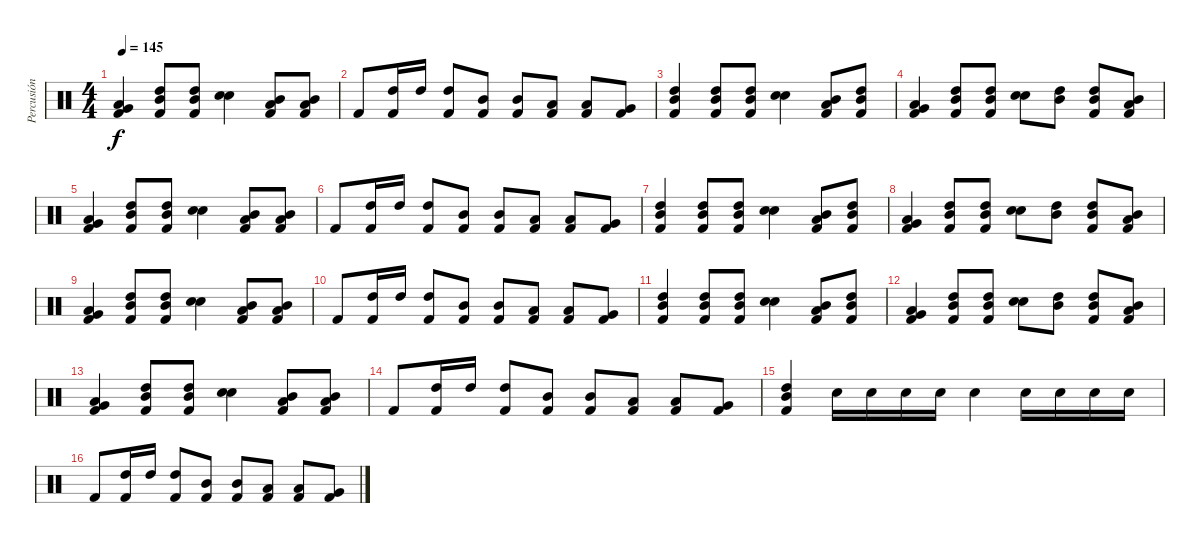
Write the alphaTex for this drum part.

\track ("Percusión" "Percusión") {instrument percussion}
\staff {score}
\articulation defaults
\ts (4 4)
\tempo 145
\clef neutral
\ks c
("Low Tom (hit)" "Very Low Tom (hit)" "Kick (hit) 2").4{dy f} ("High Tom (hit)" "Mid Tom (hit)" "Kick (hit) 2").8 ("High Tom (hit)" "Mid Tom (hit)" "Kick (hit) 2").8 ("Snare (hit) 2" "Snare (hit) 2").4 ("Mid Tom (hit)" "Low Tom (hit)" "Kick (hit) 2").8 ("Mid Tom (hit)" "Low Tom (hit)" "Kick (hit) 2").8 |
"Kick (hit) 2".8 ("High Tom (hit)" "Kick (hit) 2").16 "High Tom (hit)".16 ("High Tom (hit)" "Kick (hit) 2").8 ("Mid Tom (hit)" "Kick (hit) 2").8 ("Mid Tom (hit)" "Kick (hit) 2").8 ("Low Tom (hit)" "Kick (hit) 2").8 ("Low Tom (hit)" "Kick (hit) 2").8 ("Very Low Tom (hit)" "Kick (hit) 2").8 |
("High Tom (hit)" "Mid Tom (hit)" "Kick (hit) 2").4 ("High Tom (hit)" "Mid Tom (hit)" "Kick (hit) 2").8 ("High Tom (hit)" "Mid Tom (hit)" "Kick (hit) 2").8 ("Snare (hit) 2" "Snare (hit) 2").4 ("Mid Tom (hit)" "Low Tom (hit)" "Kick (hit) 2").8 ("High Tom (hit)" "Mid Tom (hit)" "Kick (hit) 2").8 |
("Very Low Tom (hit)" "Low Tom (hit)" "Kick (hit) 2").4 ("High Tom (hit)" "Mid Tom (hit)" "Kick (hit) 2").8 ("High Tom (hit)" "Mid Tom (hit)" "Kick (hit) 2").8 ("Snare (hit) 2" "Snare (hit) 2").8 ("High Tom (hit)" "Mid Tom (hit)").8 ("High Tom (hit)" "Mid Tom (hit)" "Kick (hit) 2").8 ("Mid Tom (hit)" "Low Tom (hit)" "Kick (hit) 2").8 |
("Low Tom (hit)" "Very Low Tom (hit)" "Kick (hit) 2").4 ("High Tom (hit)" "Mid Tom (hit)" "Kick (hit) 2").8 ("High Tom (hit)" "Mid Tom (hit)" "Kick (hit) 2").8 ("Snare (hit) 2" "Snare (hit) 2").4 ("Mid Tom (hit)" "Low Tom (hit)" "Kick (hit) 2").8 ("Mid Tom (hit)" "Low Tom (hit)" "Kick (hit) 2").8 |
"Kick (hit) 2".8 ("High Tom (hit)" "Kick (hit) 2").16 "High Tom (hit)".16 ("High Tom (hit)" "Kick (hit) 2").8 ("Mid Tom (hit)" "Kick (hit) 2").8 ("Mid Tom (hit)" "Kick (hit) 2").8 ("Low Tom (hit)" "Kick (hit) 2").8 ("Low Tom (hit)" "Kick (hit) 2").8 ("Very Low Tom (hit)" "Kick (hit) 2").8 |
("High Tom (hit)" "Mid Tom (hit)" "Kick (hit) 2").4 ("High Tom (hit)" "Mid Tom (hit)" "Kick (hit) 2").8 ("High Tom (hit)" "Mid Tom (hit)" "Kick (hit) 2").8 ("Snare (hit) 2" "Snare (hit) 2").4 ("Mid Tom (hit)" "Low Tom (hit)" "Kick (hit) 2").8 ("High Tom (hit)" "Mid Tom (hit)" "Kick (hit) 2").8 |
("Very Low Tom (hit)" "Low Tom (hit)" "Kick (hit) 2").4 ("High Tom (hit)" "Mid Tom (hit)" "Kick (hit) 2").8 ("High Tom (hit)" "Mid Tom (hit)" "Kick (hit) 2").8 ("Snare (hit) 2" "Snare (hit) 2").8 ("High Tom (hit)" "Mid Tom (hit)").8 ("High Tom (hit)" "Mid Tom (hit)" "Kick (hit) 2").8 ("Mid Tom (hit)" "Low Tom (hit)" "Kick (hit) 2").8 |
("Low Tom (hit)" "Very Low Tom (hit)" "Kick (hit) 2").4 ("High Tom (hit)" "Mid Tom (hit)" "Kick (hit) 2").8 ("High Tom (hit)" "Mid Tom (hit)" "Kick (hit) 2").8 ("Snare (hit) 2" "Snare (hit) 2").4 ("Mid Tom (hit)" "Low Tom (hit)" "Kick (hit) 2").8 ("Mid Tom (hit)" "Low Tom (hit)" "Kick (hit) 2").8 |
"Kick (hit) 2".8 ("High Tom (hit)" "Kick (hit) 2").16 "High Tom (hit)".16 ("High Tom (hit)" "Kick (hit) 2").8 ("Mid Tom (hit)" "Kick (hit) 2").8 ("Mid Tom (hit)" "Kick (hit) 2").8 ("Low Tom (hit)" "Kick (hit) 2").8 ("Low Tom (hit)" "Kick (hit) 2").8 ("Very Low Tom (hit)" "Kick (hit) 2").8 |
("High Tom (hit)" "Mid Tom (hit)" "Kick (hit) 2").4 ("High Tom (hit)" "Mid Tom (hit)" "Kick (hit) 2").8 ("High Tom (hit)" "Mid Tom (hit)" "Kick (hit) 2").8 ("Snare (hit) 2" "Snare (hit) 2").4 ("Mid Tom (hit)" "Low Tom (hit)" "Kick (hit) 2").8 ("High Tom (hit)" "Mid Tom (hit)" "Kick (hit) 2").8 |
("Very Low Tom (hit)" "Low Tom (hit)" "Kick (hit) 2").4 ("High Tom (hit)" "Mid Tom (hit)" "Kick (hit) 2").8 ("High Tom (hit)" "Mid Tom (hit)" "Kick (hit) 2").8 ("Snare (hit) 2" "Snare (hit) 2").8 ("High Tom (hit)" "Mid Tom (hit)").8 ("High Tom (hit)" "Mid Tom (hit)" "Kick (hit) 2").8 ("Mid Tom (hit)" "Low Tom (hit)" "Kick (hit) 2").8 |
("Low Tom (hit)" "Very Low Tom (hit)" "Kick (hit) 2").4 ("High Tom (hit)" "Mid Tom (hit)" "Kick (hit) 2").8 ("High Tom (hit)" "Mid Tom (hit)" "Kick (hit) 2").8 ("Snare (hit) 2" "Snare (hit) 2").4 ("Mid Tom (hit)" "Low Tom (hit)" "Kick (hit) 2").8 ("Mid Tom (hit)" "Low Tom (hit)" "Kick (hit) 2").8 |
"Kick (hit) 2".8 ("High Tom (hit)" "Kick (hit) 2").16 "High Tom (hit)".16 ("High Tom (hit)" "Kick (hit) 2").8 ("Mid Tom (hit)" "Kick (hit) 2").8 ("Mid Tom (hit)" "Kick (hit) 2").8 ("Low Tom (hit)" "Kick (hit) 2").8 ("Low Tom (hit)" "Kick (hit) 2").8 ("Very Low Tom (hit)" "Kick (hit) 2").8 |
("High Tom (hit)" "Mid Tom (hit)" "Kick (hit) 2").4 "Snare (hit) 2".16 "Snare (hit) 2".16 "Snare (hit) 2".16 "Snare (hit) 2".16 "Snare (hit) 2".4 "Snare (hit) 2".16 "Snare (hit) 2".16 "Snare (hit) 2".16 "Snare (hit) 2".16 |
"Kick (hit) 2".8 ("High Tom (hit)" "Kick (hit) 2").16 "High Tom (hit)".16 ("High Tom (hit)" "Kick (hit) 2").8 ("Mid Tom (hit)" "Kick (hit) 2").8 ("Mid Tom (hit)" "Kick (hit) 2").8 ("Low Tom (hit)" "Kick (hit) 2").8 ("Low Tom (hit)" "Kick (hit) 2").8 ("Very Low Tom (hit)" "Kick (hit) 2").8
